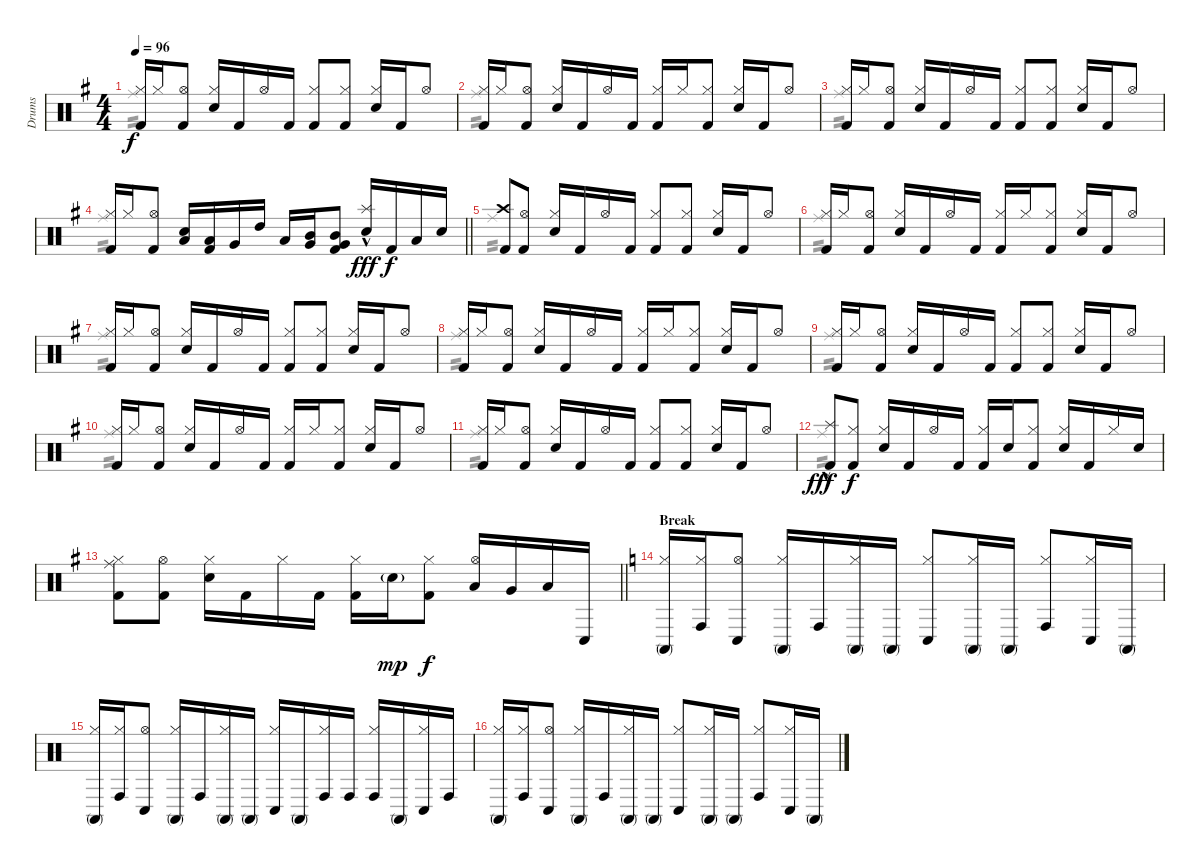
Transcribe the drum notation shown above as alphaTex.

\track ("Drums" "Drums") {instrument percussion}
\staff {score}
\articulation defaults
\voice
\ts (4 4)
\tempo 96
\clef neutral
\ks g
("Hi-Hat (closed)" "Kick (hit) 2").16{dy f} "Hi-Hat (closed)".16 ("Hi-Hat (open)" "Kick (hit) 2").8 ("Hi-Hat (closed)" "Electric Snare (hit)").16 "Kick (hit) 2".16 "Hi-Hat (open)".16 "Kick (hit) 2".16 ("Hi-Hat (closed)" "Kick (hit) 2").8 ("Hi-Hat (closed)" "Kick (hit) 2").8 ("Hi-Hat (closed)" "Electric Snare (hit)").16 "Kick (hit) 2".16 "Hi-Hat (open)".8 |
("Hi-Hat (closed)" "Kick (hit) 2").16 "Hi-Hat (closed)".16 ("Hi-Hat (open)" "Kick (hit) 2").8 ("Hi-Hat (closed)" "Electric Snare (hit)").16 "Kick (hit) 2".16 "Hi-Hat (open)".16 "Kick (hit) 2".16 ("Hi-Hat (closed)" "Kick (hit) 2").16 "Hi-Hat (closed)".16 ("Hi-Hat (closed)" "Kick (hit) 2").8 ("Hi-Hat (closed)" "Electric Snare (hit)").16 "Kick (hit) 2".16 "Hi-Hat (open)".8 |
("Hi-Hat (closed)" "Kick (hit) 2").16 "Hi-Hat (closed)".16 ("Hi-Hat (open)" "Kick (hit) 2").8 ("Hi-Hat (closed)" "Electric Snare (hit)").16 "Kick (hit) 2".16 "Hi-Hat (open)".16 "Kick (hit) 2".16 ("Hi-Hat (closed)" "Kick (hit) 2").8 ("Hi-Hat (closed)" "Kick (hit) 2").8 ("Hi-Hat (closed)" "Electric Snare (hit)").16 "Kick (hit) 2".16 "Hi-Hat (open)".8 |
\barLineRight lightlight
("Hi-Hat (closed)" "Kick (hit) 2").16 "Hi-Hat (closed)".16 ("Hi-Hat (open)" "Kick (hit) 2").8 ("Electric Snare (hit)" "Low Tom (hit)").16 ("Low Tom (hit)" "Kick (hit) 2").16 "Very Low Tom (hit)".16 "High Tom (hit)".16 "Low Floor Tom (hit)".16 ("Mid Tom (hit)" "Very Low Tom (hit)").16 ("Mid Tom (hit)" "Very Low Tom (hit)" "Kick (hit) 2").8 ("Splash (hit)"{hac} "Electric Snare (hit)").16{dy fff} "Kick (hit) 2".16{dy f} "Low Tom (hit)".16 "Electric Snare (hit)".16 |
\section ("" "")
("Crash high (hit)" "Kick (hit) 2").8 ("Hi-Hat (open)" "Kick (hit) 2").8 ("Hi-Hat (closed)" "Electric Snare (hit)").16 "Kick (hit) 2".16 "Hi-Hat (open)".16 "Kick (hit) 2".16 ("Hi-Hat (closed)" "Kick (hit) 2").8 ("Hi-Hat (closed)" "Kick (hit) 2").8 ("Hi-Hat (closed)" "Electric Snare (hit)").16 "Kick (hit) 2".16 "Hi-Hat (open)".8 |
("Hi-Hat (closed)" "Kick (hit) 2").16 "Hi-Hat (closed)".16 ("Hi-Hat (open)" "Kick (hit) 2").8 ("Hi-Hat (closed)" "Electric Snare (hit)").16 "Kick (hit) 2".16 "Hi-Hat (open)".16 "Kick (hit) 2".16 ("Hi-Hat (closed)" "Kick (hit) 2").16 "Hi-Hat (closed)".16 ("Hi-Hat (closed)" "Kick (hit) 2").8 ("Hi-Hat (closed)" "Electric Snare (hit)").16 "Kick (hit) 2".16 "Hi-Hat (open)".8 |
("Hi-Hat (closed)" "Kick (hit) 2").16 "Hi-Hat (closed)".16 ("Hi-Hat (open)" "Kick (hit) 2").8 ("Hi-Hat (closed)" "Electric Snare (hit)").16 "Kick (hit) 2".16 "Hi-Hat (open)".16 "Kick (hit) 2".16 ("Hi-Hat (closed)" "Kick (hit) 2").8 ("Hi-Hat (closed)" "Kick (hit) 2").8 ("Hi-Hat (closed)" "Electric Snare (hit)").16 "Kick (hit) 2".16 "Hi-Hat (open)".8 |
("Hi-Hat (closed)" "Kick (hit) 2").16 "Hi-Hat (closed)".16 ("Hi-Hat (open)" "Kick (hit) 2").8 ("Hi-Hat (closed)" "Electric Snare (hit)").16 "Kick (hit) 2".16 "Hi-Hat (open)".16 "Kick (hit) 2".16 ("Hi-Hat (closed)" "Kick (hit) 2").16 "Hi-Hat (closed)".16 ("Hi-Hat (closed)" "Kick (hit) 2").8 ("Hi-Hat (closed)" "Electric Snare (hit)").16 "Kick (hit) 2".16 "Hi-Hat (open)".8 |
("Hi-Hat (closed)" "Kick (hit) 2").16 "Hi-Hat (closed)".16 ("Hi-Hat (open)" "Kick (hit) 2").8 ("Hi-Hat (closed)" "Electric Snare (hit)").16 "Kick (hit) 2".16 "Hi-Hat (open)".16 "Kick (hit) 2".16 ("Hi-Hat (closed)" "Kick (hit) 2").8 ("Hi-Hat (closed)" "Kick (hit) 2").8 ("Hi-Hat (closed)" "Electric Snare (hit)").16 "Kick (hit) 2".16 "Hi-Hat (open)".8 |
("Hi-Hat (closed)" "Kick (hit) 2").16 "Hi-Hat (closed)".16 ("Hi-Hat (open)" "Kick (hit) 2").8 ("Hi-Hat (closed)" "Electric Snare (hit)").16 "Kick (hit) 2".16 "Hi-Hat (open)".16 "Kick (hit) 2".16 ("Hi-Hat (closed)" "Kick (hit) 2").16 "Hi-Hat (closed)".16 ("Hi-Hat (closed)" "Kick (hit) 2").8 ("Hi-Hat (closed)" "Electric Snare (hit)").16 "Kick (hit) 2".16 "Hi-Hat (open)".8 |
("Hi-Hat (closed)" "Kick (hit) 2").16 "Hi-Hat (closed)".16 ("Hi-Hat (open)" "Kick (hit) 2").8 ("Hi-Hat (closed)" "Electric Snare (hit)").16 "Kick (hit) 2".16 "Hi-Hat (open)".16 "Kick (hit) 2".16 ("Hi-Hat (closed)" "Kick (hit) 2").8 ("Hi-Hat (closed)" "Kick (hit) 2").8 ("Hi-Hat (closed)" "Electric Snare (hit)").16 "Kick (hit) 2".16 "Hi-Hat (open)".8 |
("Splash (hit)"{hac} "Kick (hit) 2").8{dy fff} ("Hi-Hat (closed)" "Kick (hit) 2").8{dy f} ("Hi-Hat (closed)" "Electric Snare (hit)").16 "Kick (hit) 2".16 "Hi-Hat (open)".16 "Kick (hit) 2".16 ("Hi-Hat (closed)" "Kick (hit) 2").16 "Electric Snare (hit)".16 ("Hi-Hat (closed)" "Kick (hit) 2").8 ("Hi-Hat (closed)" "Electric Snare (hit)").16 "Kick (hit) 2".16 "Hi-Hat (closed)".16 "Electric Snare (hit)".16 |
\barLineRight lightlight
("Hi-Hat (closed)" "Ride (middle)" "Kick (hit) 2").8 ("Hi-Hat (open)" "Kick (hit) 2").8 ("Hi-Hat (closed)" "Electric Snare (hit)").16 "Kick (hit) 2".16 "Hi-Hat (closed)".16 "Kick (hit) 2".16 ("Hi-Hat (closed)" "Kick (hit) 2").16 "Electric Snare (hit)"{g}.16{dy mp} ("Hi-Hat (closed)" "Kick (hit) 2").8{dy f} ("Hi-Hat (open)" "Low Tom (hit)").16 "Very Low Tom (hit)".16 "Low Floor Tom (hit)".16 "Conga low (hit)".16 |
\section ("" "Break")
\ks c
("Hi-Hat (closed)" "Conga high (mute)").16 ("Hi-Hat (closed)" "Conga high (hit)").16 ("Hi-Hat (open)" "Conga low (hit)").8 ("Hi-Hat (closed)" "Conga high (mute)").16 "Conga high (hit)".16 ("Hi-Hat (closed)" "Conga high (mute)").16 "Conga high (mute)".16 ("Hi-Hat (closed)" "Conga low (hit)").8 ("Hi-Hat (closed)" "Conga high (mute)").16 "Conga high (mute)".16 ("Hi-Hat (closed)" "Conga high (hit)").8 ("Hi-Hat (closed)" "Conga low (hit)").16 "Conga high (mute)".16 |
("Hi-Hat (closed)" "Conga high (mute)").16 ("Hi-Hat (closed)" "Conga high (hit)").16 ("Hi-Hat (open)" "Conga low (hit)").8 ("Hi-Hat (closed)" "Conga high (mute)").16 "Conga high (hit)".16 ("Hi-Hat (closed)" "Conga high (mute)").16 "Conga high (mute)".16 ("Hi-Hat (closed)" "Conga low (hit)").16 "Conga high (mute)".16 ("Hi-Hat (closed)" "Conga high (hit)").16 "Conga high (hit)".16 ("Hi-Hat (closed)" "Conga high (hit)").16 "Conga high (mute)".16 ("Hi-Hat (closed)" "Conga low (hit)").16 "Conga high (hit)".16 |
("Hi-Hat (closed)" "Conga high (mute)").16 ("Hi-Hat (closed)" "Conga high (hit)").16 ("Hi-Hat (open)" "Conga low (hit)").8 ("Hi-Hat (closed)" "Conga high (mute)").16 "Conga high (hit)".16 ("Hi-Hat (closed)" "Conga high (mute)").16 "Conga high (mute)".16 ("Hi-Hat (closed)" "Conga low (hit)").8 ("Hi-Hat (closed)" "Conga high (mute)").16 "Conga high (mute)".16 ("Hi-Hat (closed)" "Conga high (hit)").8 ("Hi-Hat (closed)" "Conga low (hit)").16 "Conga high (mute)".16
\voice
\clef neutral
\ottava regular
\simile none
\ks g "Ride (middle)".1{tp 2 dy f}
|
"Ride (middle)".1{tp 2} |
"Ride (middle)".1{tp 2} |
\barLineRight lightlight "Ride (middle)".1{tp 2}
|
"Ride (middle)".1{tp 2} |
"Ride (middle)".1{tp 2} |
"Ride (middle)".1{tp 2} |
"Ride (middle)".1{tp 2} |
"Ride (middle)".1{tp 2} |
"Ride (middle)".1{tp 2} |
"Ride (middle)".1{tp 2} |
"Ride (middle)".1{tp 2} |
\barLineRight lightlight
|
\ks c
|
|
